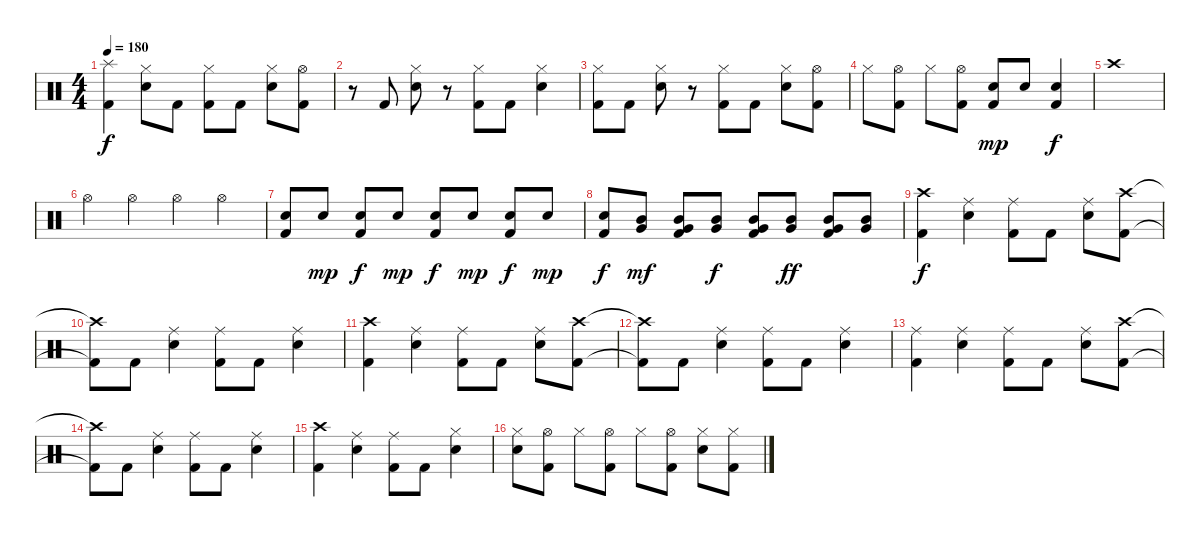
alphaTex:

\track "" {instrument percussion}
\staff {score}
\articulation defaults
\ts (4 4)
\tempo 180
\clef neutral
\ks c
("Splash (hit)" "Kick (hit) 2").4{dy f} ("Hi-Hat (closed)" "Electric Snare (hit)").8 "Kick (hit) 2".8 ("Hi-Hat (closed)" "Kick (hit) 2").8 "Kick (hit) 2".8 ("Hi-Hat (closed)" "Electric Snare (hit)").8 ("Hi-Hat (open)" "Kick (hit) 2").8 |
r.8 "Kick (hit) 2".8 ("Hi-Hat (closed)" "Electric Snare (hit)").8 r.8 ("Hi-Hat (closed)" "Kick (hit) 2").8 "Kick (hit) 2".8 ("Hi-Hat (closed)" "Electric Snare (hit)").4 |
("Hi-Hat (closed)" "Kick (hit) 2").8 "Kick (hit) 2".8 ("Hi-Hat (closed)" "Electric Snare (hit)").8 r.8 ("Hi-Hat (closed)" "Kick (hit) 2").8 "Kick (hit) 2".8 ("Hi-Hat (closed)" "Electric Snare (hit)").8 ("Hi-Hat (open)" "Kick (hit) 2").8 |
"Hi-Hat (closed)".8 ("Hi-Hat (open)" "Kick (hit) 2").8 "Hi-Hat (closed)".8 ("Hi-Hat (open)" "Kick (hit) 2").8 ("Electric Snare (hit)" "Kick (hit) 2").8{dy mp} "Electric Snare (hit)".8 ("Electric Snare (hit)" "Kick (hit) 2").4{dy f} |
"Crash high (hit)".1 |
"Hi-Hat (open)".4 "Hi-Hat (open)".4 "Hi-Hat (open)".4 "Hi-Hat (open)".4 |
("Electric Snare (hit)" "Kick (hit) 2").8 "Electric Snare (hit)".8{dy mp} ("Electric Snare (hit)" "Kick (hit) 2").8{dy f} "Electric Snare (hit)".8{dy mp} ("Electric Snare (hit)" "Kick (hit) 2").8{dy f} "Electric Snare (hit)".8{dy mp} ("Electric Snare (hit)" "Kick (hit) 2").8{dy f} "Electric Snare (hit)".8{dy mp} |
("Electric Snare (hit)" "Kick (hit) 2").8{dy f} ("Very Low Tom (hit)" "Mid Tom (hit)").8{dy mf} ("Very Low Tom (hit)" "Mid Tom (hit)" "Kick (hit) 2").8 ("Very Low Tom (hit)" "Mid Tom (hit)").8{dy f} ("Very Low Tom (hit)" "Mid Tom (hit)" "Kick (hit) 2").8 ("Very Low Tom (hit)" "Mid Tom (hit)").8{dy ff} ("Very Low Tom (hit)" "Mid Tom (hit)" "Kick (hit) 2").8 ("Very Low Tom (hit)" "Mid Tom (hit)").8 |
("Crash high (hit)" "Kick (hit) 2").4{dy f} ("Ride (middle)" "Electric Snare (hit)").4 ("Ride (middle)" "Kick (hit) 2").8 "Kick (hit) 2".8 ("Ride (middle)" "Electric Snare (hit)").8 ("Crash high (hit)" "Kick (hit) 2").8 |
("Crash high (hit)"{t} "Kick (hit) 2"{t}).8 "Kick (hit) 2".8 ("Ride (middle)" "Electric Snare (hit)").4 ("Ride (middle)" "Kick (hit) 2").8 "Kick (hit) 2".8 ("Ride (middle)" "Electric Snare (hit)").4 |
("Crash high (hit)" "Kick (hit) 2").4 ("Ride (middle)" "Electric Snare (hit)").4 ("Ride (middle)" "Kick (hit) 2").8 "Kick (hit) 2".8 ("Ride (middle)" "Electric Snare (hit)").8 ("Crash high (hit)" "Kick (hit) 2").8 |
("Crash high (hit)"{t} "Kick (hit) 2"{t}).8 "Kick (hit) 2".8 ("Ride (middle)" "Electric Snare (hit)").4 ("Ride (middle)" "Kick (hit) 2").8 "Kick (hit) 2".8 ("Ride (middle)" "Electric Snare (hit)").4 |
("Ride (middle)" "Kick (hit) 2").4 ("Ride (middle)" "Electric Snare (hit)").4 ("Ride (middle)" "Kick (hit) 2").8 "Kick (hit) 2".8 ("Ride (middle)" "Electric Snare (hit)").8 ("Crash high (hit)" "Kick (hit) 2").8 |
("Crash high (hit)"{t} "Kick (hit) 2"{t}).8 "Kick (hit) 2".8 ("Ride (middle)" "Electric Snare (hit)").4 ("Ride (middle)" "Kick (hit) 2").8 "Kick (hit) 2".8 ("Ride (middle)" "Electric Snare (hit)").4 |
("Crash high (hit)" "Kick (hit) 2").4 ("Ride (middle)" "Electric Snare (hit)").4 ("Ride (middle)" "Kick (hit) 2").8 "Kick (hit) 2".8 ("Hi-Hat (closed)" "Electric Snare (hit)").4 |
("Hi-Hat (closed)" "Electric Snare (hit)").8 ("Hi-Hat (open)" "Kick (hit) 2").8 "Hi-Hat (closed)".8 ("Hi-Hat (open)" "Kick (hit) 2").8 "Hi-Hat (closed)".8 ("Hi-Hat (open)" "Kick (hit) 2").8 ("Hi-Hat (closed)" "Electric Snare (hit)").8 ("Hi-Hat (closed)" "Kick (hit) 2").8
